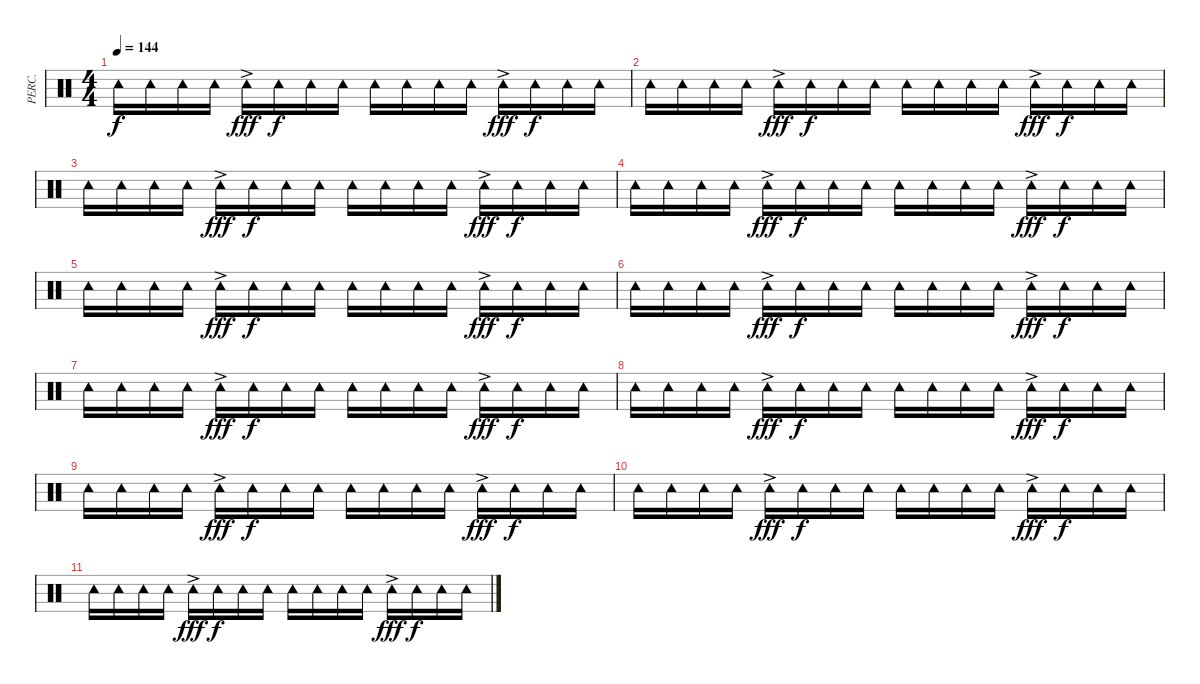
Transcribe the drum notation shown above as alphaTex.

\track ("PERC." "PERC.") {instrument percussion}
\staff {score}
\articulation defaults
\ts (4 4)
\tempo 144
\clef neutral
\ks c "Tambourine (hit)".16{dy f} "Tambourine (hit)".16 "Tambourine (hit)".16 "Tambourine (hit)".16 "Tambourine (hit)"{ac}.16{dy fff} "Tambourine (hit)".16{dy f} "Tambourine (hit)".16 "Tambourine (hit)".16 "Tambourine (hit)".16 "Tambourine (hit)".16 "Tambourine (hit)".16 "Tambourine (hit)".16 "Tambourine (hit)"{ac}.16{dy fff} "Tambourine (hit)".16{dy f} "Tambourine (hit)".16 "Tambourine (hit)".16
|
"Tambourine (hit)".16 "Tambourine (hit)".16 "Tambourine (hit)".16 "Tambourine (hit)".16 "Tambourine (hit)"{ac}.16{dy fff} "Tambourine (hit)".16{dy f} "Tambourine (hit)".16 "Tambourine (hit)".16 "Tambourine (hit)".16 "Tambourine (hit)".16 "Tambourine (hit)".16 "Tambourine (hit)".16 "Tambourine (hit)"{ac}.16{dy fff} "Tambourine (hit)".16{dy f} "Tambourine (hit)".16 "Tambourine (hit)".16 |
"Tambourine (hit)".16 "Tambourine (hit)".16 "Tambourine (hit)".16 "Tambourine (hit)".16 "Tambourine (hit)"{ac}.16{dy fff} "Tambourine (hit)".16{dy f} "Tambourine (hit)".16 "Tambourine (hit)".16 "Tambourine (hit)".16 "Tambourine (hit)".16 "Tambourine (hit)".16 "Tambourine (hit)".16 "Tambourine (hit)"{ac}.16{dy fff} "Tambourine (hit)".16{dy f} "Tambourine (hit)".16 "Tambourine (hit)".16 |
"Tambourine (hit)".16 "Tambourine (hit)".16 "Tambourine (hit)".16 "Tambourine (hit)".16 "Tambourine (hit)"{ac}.16{dy fff} "Tambourine (hit)".16{dy f} "Tambourine (hit)".16 "Tambourine (hit)".16 "Tambourine (hit)".16 "Tambourine (hit)".16 "Tambourine (hit)".16 "Tambourine (hit)".16 "Tambourine (hit)"{ac}.16{dy fff} "Tambourine (hit)".16{dy f} "Tambourine (hit)".16 "Tambourine (hit)".16 |
"Tambourine (hit)".16 "Tambourine (hit)".16 "Tambourine (hit)".16 "Tambourine (hit)".16 "Tambourine (hit)"{ac}.16{dy fff} "Tambourine (hit)".16{dy f} "Tambourine (hit)".16 "Tambourine (hit)".16 "Tambourine (hit)".16 "Tambourine (hit)".16 "Tambourine (hit)".16 "Tambourine (hit)".16 "Tambourine (hit)"{ac}.16{dy fff} "Tambourine (hit)".16{dy f} "Tambourine (hit)".16 "Tambourine (hit)".16 |
"Tambourine (hit)".16 "Tambourine (hit)".16 "Tambourine (hit)".16 "Tambourine (hit)".16 "Tambourine (hit)"{ac}.16{dy fff} "Tambourine (hit)".16{dy f} "Tambourine (hit)".16 "Tambourine (hit)".16 "Tambourine (hit)".16 "Tambourine (hit)".16 "Tambourine (hit)".16 "Tambourine (hit)".16 "Tambourine (hit)"{ac}.16{dy fff} "Tambourine (hit)".16{dy f} "Tambourine (hit)".16 "Tambourine (hit)".16 |
"Tambourine (hit)".16 "Tambourine (hit)".16 "Tambourine (hit)".16 "Tambourine (hit)".16 "Tambourine (hit)"{ac}.16{dy fff} "Tambourine (hit)".16{dy f} "Tambourine (hit)".16 "Tambourine (hit)".16 "Tambourine (hit)".16 "Tambourine (hit)".16 "Tambourine (hit)".16 "Tambourine (hit)".16 "Tambourine (hit)"{ac}.16{dy fff} "Tambourine (hit)".16{dy f} "Tambourine (hit)".16 "Tambourine (hit)".16 |
"Tambourine (hit)".16 "Tambourine (hit)".16 "Tambourine (hit)".16 "Tambourine (hit)".16 "Tambourine (hit)"{ac}.16{dy fff} "Tambourine (hit)".16{dy f} "Tambourine (hit)".16 "Tambourine (hit)".16 "Tambourine (hit)".16 "Tambourine (hit)".16 "Tambourine (hit)".16 "Tambourine (hit)".16 "Tambourine (hit)"{ac}.16{dy fff} "Tambourine (hit)".16{dy f} "Tambourine (hit)".16 "Tambourine (hit)".16 |
"Tambourine (hit)".16 "Tambourine (hit)".16 "Tambourine (hit)".16 "Tambourine (hit)".16 "Tambourine (hit)"{ac}.16{dy fff} "Tambourine (hit)".16{dy f} "Tambourine (hit)".16 "Tambourine (hit)".16 "Tambourine (hit)".16 "Tambourine (hit)".16 "Tambourine (hit)".16 "Tambourine (hit)".16 "Tambourine (hit)"{ac}.16{dy fff} "Tambourine (hit)".16{dy f} "Tambourine (hit)".16 "Tambourine (hit)".16 |
"Tambourine (hit)".16 "Tambourine (hit)".16 "Tambourine (hit)".16 "Tambourine (hit)".16 "Tambourine (hit)"{ac}.16{dy fff} "Tambourine (hit)".16{dy f} "Tambourine (hit)".16 "Tambourine (hit)".16 "Tambourine (hit)".16 "Tambourine (hit)".16 "Tambourine (hit)".16 "Tambourine (hit)".16 "Tambourine (hit)"{ac}.16{dy fff} "Tambourine (hit)".16{dy f} "Tambourine (hit)".16 "Tambourine (hit)".16 |
"Tambourine (hit)".16 "Tambourine (hit)".16 "Tambourine (hit)".16 "Tambourine (hit)".16 "Tambourine (hit)"{ac}.16{dy fff} "Tambourine (hit)".16{dy f} "Tambourine (hit)".16 "Tambourine (hit)".16 "Tambourine (hit)".16 "Tambourine (hit)".16 "Tambourine (hit)".16 "Tambourine (hit)".16 "Tambourine (hit)"{ac}.16{dy fff} "Tambourine (hit)".16{dy f} "Tambourine (hit)".16 "Tambourine (hit)".16
